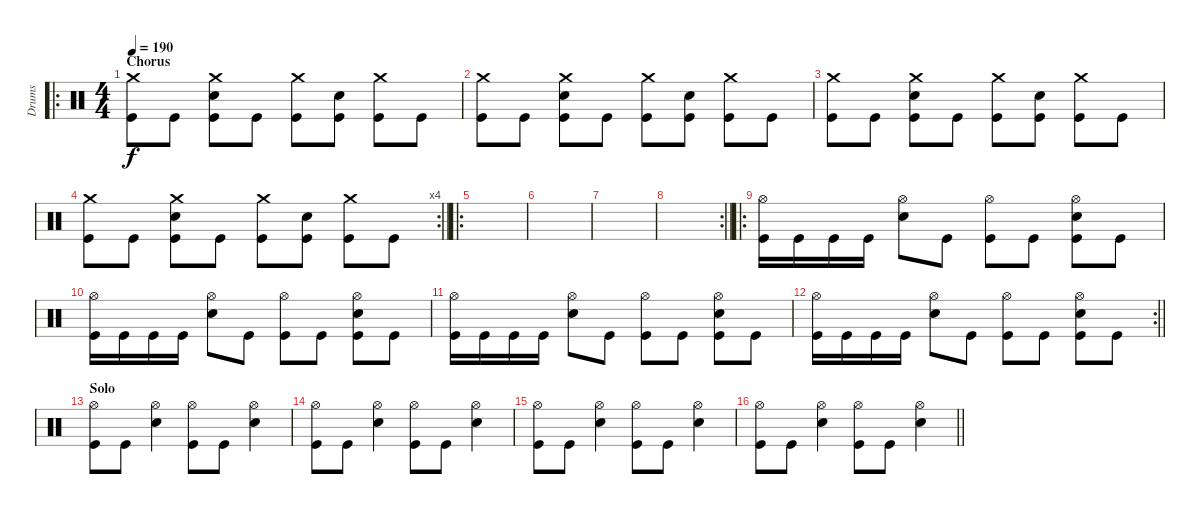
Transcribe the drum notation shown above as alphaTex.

\track ("Drums" "Drums") {instrument percussion}
\staff {score}
\articulation defaults
\ro
\ts (4 4)
\section ("" "Chorus")
\tempo 190
\clef neutral
\ks c
("Crash medium (hit)" "Kick (hit)").8{dy f} "Kick (hit)".8 ("Crash medium (hit)" "Snare (hit) 2" "Kick (hit)").8 "Kick (hit)".8 ("Crash medium (hit)" "Kick (hit)").8 ("Snare (hit) 2" "Kick (hit)").8 ("Crash medium (hit)" "Kick (hit)").8 "Kick (hit)".8 |
("Crash medium (hit)" "Kick (hit)").8 "Kick (hit)".8 ("Crash medium (hit)" "Snare (hit) 2" "Kick (hit)").8 "Kick (hit)".8 ("Crash medium (hit)" "Kick (hit)").8 ("Snare (hit) 2" "Kick (hit)").8 ("Crash medium (hit)" "Kick (hit)").8 "Kick (hit)".8 |
("Crash medium (hit)" "Kick (hit)").8 "Kick (hit)".8 ("Crash medium (hit)" "Snare (hit) 2" "Kick (hit)").8 "Kick (hit)".8 ("Crash medium (hit)" "Kick (hit)").8 ("Snare (hit) 2" "Kick (hit)").8 ("Crash medium (hit)" "Kick (hit)").8 "Kick (hit)".8 |
\rc 4
\barLineRight lightlight
("Crash medium (hit)" "Kick (hit)").8 "Kick (hit)".8 ("Crash medium (hit)" "Snare (hit) 2" "Kick (hit)").8 "Kick (hit)".8 ("Crash medium (hit)" "Kick (hit)").8 ("Snare (hit) 2" "Kick (hit)").8 ("Crash medium (hit)" "Kick (hit)").8 "Kick (hit)".8 |
\ro
|
|
|
\rc 2
\barLineRight lightlight
|
\ro
("Hi-Hat (open)" "Kick (hit)").16 "Kick (hit)".16 "Kick (hit)".16 "Kick (hit)".16 ("Hi-Hat (open)" "Snare (hit) 2").8 "Kick (hit)".8 ("Hi-Hat (open)" "Kick (hit)").8 "Kick (hit)".8 ("Hi-Hat (open)" "Snare (hit) 2" "Kick (hit)").8 "Kick (hit)".8 |
("Hi-Hat (open)" "Kick (hit)").16 "Kick (hit)".16 "Kick (hit)".16 "Kick (hit)".16 ("Hi-Hat (open)" "Snare (hit) 2").8 "Kick (hit)".8 ("Hi-Hat (open)" "Kick (hit)").8 "Kick (hit)".8 ("Hi-Hat (open)" "Snare (hit) 2" "Kick (hit)").8 "Kick (hit)".8 |
("Hi-Hat (open)" "Kick (hit)").16 "Kick (hit)".16 "Kick (hit)".16 "Kick (hit)".16 ("Hi-Hat (open)" "Snare (hit) 2").8 "Kick (hit)".8 ("Hi-Hat (open)" "Kick (hit)").8 "Kick (hit)".8 ("Hi-Hat (open)" "Snare (hit) 2" "Kick (hit)").8 "Kick (hit)".8 |
\rc 2
\barLineRight lightlight
("Hi-Hat (open)" "Kick (hit)").16 "Kick (hit)".16 "Kick (hit)".16 "Kick (hit)".16 ("Hi-Hat (open)" "Snare (hit) 2").8 "Kick (hit)".8 ("Hi-Hat (open)" "Kick (hit)").8 "Kick (hit)".8 ("Hi-Hat (open)" "Snare (hit) 2" "Kick (hit)").8 "Kick (hit)".8 |
\section ("" "Solo")
("Hi-Hat (open)" "Kick (hit)").8 "Kick (hit)".8 ("Hi-Hat (open)" "Snare (hit) 2").4 ("Hi-Hat (open)" "Kick (hit)").8 "Kick (hit)".8 ("Hi-Hat (open)" "Snare (hit) 2").4 |
("Hi-Hat (open)" "Kick (hit)").8 "Kick (hit)".8 ("Hi-Hat (open)" "Snare (hit) 2").4 ("Hi-Hat (open)" "Kick (hit)").8 "Kick (hit)".8 ("Hi-Hat (open)" "Snare (hit) 2").4 |
("Hi-Hat (open)" "Kick (hit)").8 "Kick (hit)".8 ("Hi-Hat (open)" "Snare (hit) 2").4 ("Hi-Hat (open)" "Kick (hit)").8 "Kick (hit)".8 ("Hi-Hat (open)" "Snare (hit) 2").4 |
\barLineRight lightlight
("Hi-Hat (open)" "Kick (hit)").8 "Kick (hit)".8 ("Hi-Hat (open)" "Snare (hit) 2").4 ("Hi-Hat (open)" "Kick (hit)").8 "Kick (hit)".8 ("Hi-Hat (open)" "Snare (hit) 2").4
